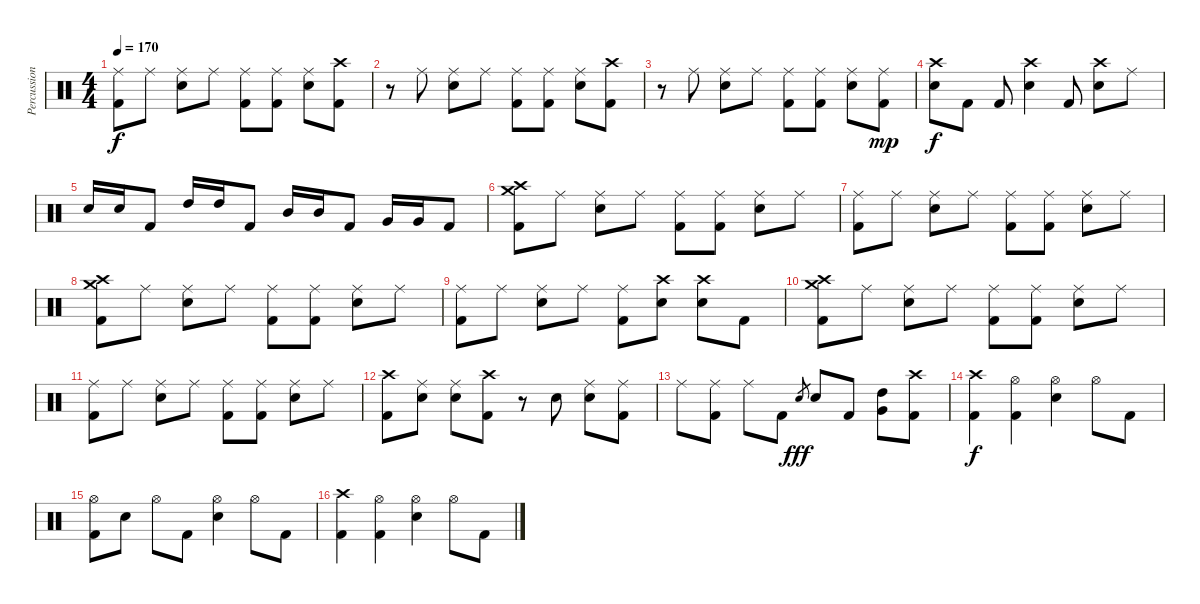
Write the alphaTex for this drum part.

\track ("Percussion" "Percussion") {instrument percussion}
\staff {score}
\articulation defaults
\ts (4 4)
\tempo 170
\clef neutral
\ks c
("Ride (middle)" "Kick (hit) 2").8{dy f} "Ride (middle)".8 ("Ride (middle)" "Snare (hit) 2").8 "Ride (middle)".8 ("Ride (middle)" "Kick (hit) 2").8 ("Ride (middle)" "Kick (hit) 2").8 ("Ride (middle)" "Snare (hit) 2").8 ("Crash high (hit)" "Kick (hit) 2").8 |
r.8 "Ride (middle)".8 ("Ride (middle)" "Snare (hit) 2").8 "Ride (middle)".8 ("Ride (middle)" "Kick (hit) 2").8 ("Ride (middle)" "Kick (hit) 2").8 ("Ride (middle)" "Snare (hit) 2").8 ("Crash high (hit)" "Kick (hit) 2").8 |
r.8 "Ride (middle)".8 ("Ride (middle)" "Snare (hit) 2").8 "Ride (middle)".8 ("Ride (middle)" "Kick (hit) 2").8 ("Ride (middle)" "Kick (hit) 2").8 ("Ride (middle)" "Snare (hit) 2").8 ("Ride (middle)" "Kick (hit) 2").8{dy mp} |
("Crash high (hit)" "Snare (hit) 2").8{dy f} "Kick (hit) 2".8 "Kick (hit) 2".8 ("Crash high (hit)" "Snare (hit) 2").4 "Kick (hit) 2".8 ("Crash high (hit)" "Snare (hit) 2").8 "Ride (middle)".8 |
"Snare (hit) 2".16 "Snare (hit) 2".16 "Kick (hit) 2".8 "High Tom (hit)".16 "High Tom (hit)".16 "Kick (hit) 2".8 "Mid Tom (hit)".16 "Mid Tom (hit)".16 "Kick (hit) 2".8 "Very Low Tom (hit)".16 "Very Low Tom (hit)".16 "Kick (hit) 2".8 |
("Crash medium (hit)" "Crash high (hit)" "Kick (hit) 2").8 "Ride (middle)".8 ("Ride (middle)" "Snare (hit) 2").8 "Ride (middle)".8 ("Ride (middle)" "Kick (hit) 2").8 ("Ride (middle)" "Kick (hit) 2").8 ("Ride (middle)" "Snare (hit) 2").8 "Ride (middle)".8 |
("Ride (middle)" "Kick (hit) 2").8 "Ride (middle)".8 ("Ride (middle)" "Snare (hit) 2").8 "Ride (middle)".8 ("Ride (middle)" "Kick (hit) 2").8 ("Ride (middle)" "Kick (hit) 2").8 ("Ride (middle)" "Snare (hit) 2").8 "Ride (middle)".8 |
("Crash medium (hit)" "Crash high (hit)" "Kick (hit) 2").8 "Ride (middle)".8 ("Ride (middle)" "Snare (hit) 2").8 "Ride (middle)".8 ("Ride (middle)" "Kick (hit) 2").8 ("Ride (middle)" "Kick (hit) 2").8 ("Ride (middle)" "Snare (hit) 2").8 "Ride (middle)".8 |
("Ride (middle)" "Kick (hit) 2").8 "Ride (middle)".8 ("Ride (middle)" "Snare (hit) 2").8 "Ride (middle)".8 ("Ride (middle)" "Kick (hit) 2").8 ("Snare (hit) 2" "Crash high (hit)").8 ("Snare (hit) 2" "Crash high (hit)").8 "Kick (hit) 2".8 |
("Crash high (hit)" "Kick (hit) 2" "Crash medium (hit)").8 "Ride (middle)".8 ("Ride (middle)" "Snare (hit) 2").8 "Ride (middle)".8 ("Ride (middle)" "Kick (hit) 2").8 ("Ride (middle)" "Kick (hit) 2").8 ("Ride (middle)" "Snare (hit) 2").8 "Ride (middle)".8 |
("Ride (middle)" "Kick (hit) 2").8 "Ride (middle)".8 ("Ride (middle)" "Snare (hit) 2").8 "Ride (middle)".8 ("Ride (middle)" "Kick (hit) 2").8 ("Ride (middle)" "Kick (hit) 2").8 ("Ride (middle)" "Snare (hit) 2").8 "Ride (middle)".8 |
("Crash high (hit)" "Kick (hit) 2").8 ("Ride (middle)" "Snare (hit) 2").8 ("Ride (middle)" "Snare (hit) 2").8 ("Crash high (hit)" "Kick (hit) 2").8 r.8 "Snare (hit) 2".8 ("Ride (middle)" "Snare (hit) 2").8 ("Ride (middle)" "Kick (hit) 2").8 |
"Ride (middle)".8 ("Ride (middle)" "Kick (hit) 2").8 "Ride (middle)".8 "Kick (hit) 2".8 "Snare (hit) 2".8{gr dy fff} "Snare (hit) 2".8 "Kick (hit) 2".8 ("Very Low Tom (hit)" "High Tom (hit)").8 ("Crash high (hit)" "Kick (hit) 2").8 |
("Crash high (hit)" "Kick (hit) 2").4{dy f} ("Kick (hit) 2" "Hi-Hat (open)").4 ("Snare (hit) 2" "Hi-Hat (open)").4 "Hi-Hat (open)".8 "Kick (hit) 2".8 |
("Kick (hit) 2" "Hi-Hat (open)").8 "Snare (hit) 2".8 "Hi-Hat (open)".8 "Kick (hit) 2".8 ("Snare (hit) 2" "Hi-Hat (open)").4 "Hi-Hat (open)".8 "Kick (hit) 2".8 |
("Crash high (hit)" "Kick (hit) 2").4 ("Kick (hit) 2" "Hi-Hat (open)").4 ("Snare (hit) 2" "Hi-Hat (open)").4 "Hi-Hat (open)".8 "Kick (hit) 2".8
